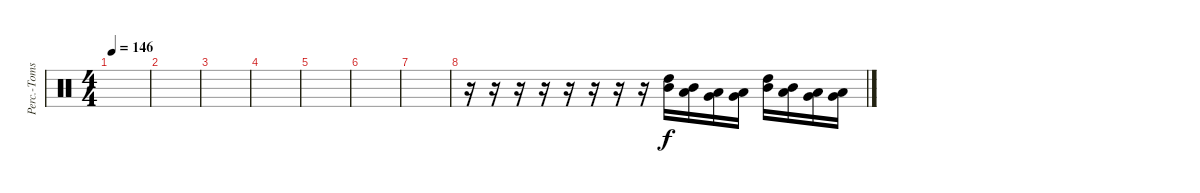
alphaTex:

\track ("Perc.-Toms 1" "Perc.-Toms") {instrument percussion}
\staff {score}
\articulation defaults
\ts (4 4)
\tempo 146
\clef neutral
\ks c
|
|
|
|
|
|
|
r.16 r.16 r.16 r.16 r.16 r.16 r.16 r.16 ("High Tom (hit)" "Mid Tom (hit)").16 ("Mid Tom (hit)" "Low Tom (hit)").16 ("Low Tom (hit)" "Very Low Tom (hit)").16 ("Very Low Tom (hit)" "Low Floor Tom (hit)").16 ("High Tom (hit)" "Mid Tom (hit)").16 ("Mid Tom (hit)" "Low Tom (hit)").16 ("Low Tom (hit)" "Very Low Tom (hit)").16 ("Very Low Tom (hit)" "Low Floor Tom (hit)").16
